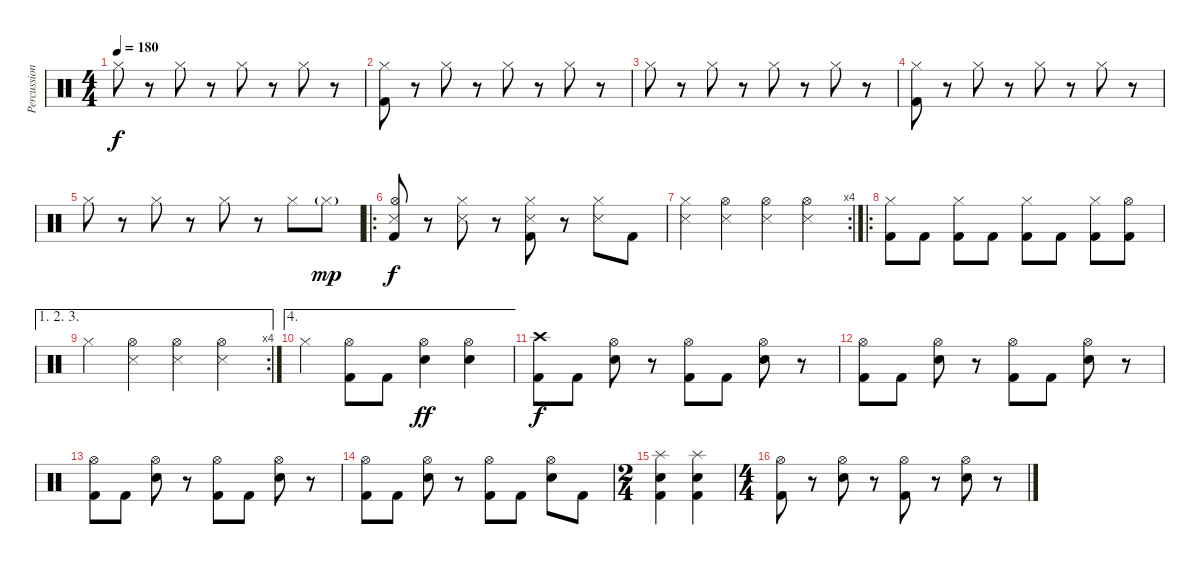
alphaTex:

\track ("Percussion" "Percussion") {instrument percussion}
\staff {score}
\articulation defaults
\ts (4 4)
\tempo 180
\clef neutral
\ks c "Hi-Hat (closed)".8{dy f}
r.8 "Hi-Hat (closed)".8 r.8 "Hi-Hat (closed)".8 r.8 "Hi-Hat (closed)".8 r.8 |
("Hi-Hat (closed)" "Kick (hit) 2").8 r.8 "Hi-Hat (closed)".8 r.8 "Hi-Hat (closed)".8 r.8 "Hi-Hat (closed)".8 r.8 |
"Hi-Hat (closed)".8 r.8 "Hi-Hat (closed)".8 r.8 "Hi-Hat (closed)".8 r.8 "Hi-Hat (closed)".8 r.8 |
("Hi-Hat (closed)" "Kick (hit) 2").8 r.8 "Hi-Hat (closed)".8 r.8 "Hi-Hat (closed)".8 r.8 "Hi-Hat (closed)".8 r.8 |
"Hi-Hat (closed)".8 r.8 "Hi-Hat (closed)".8 r.8 "Hi-Hat (closed)".8 r.8 "Hi-Hat (closed)".8 "Hi-Hat (closed)"{g}.8{dy mp} |
\ro
("Hi-Hat (open)" "Snare (side stick) 3" "Kick (hit) 2").8{dy f} r.8 ("Hi-Hat (closed)" "Snare (side stick) 3").8 r.8 ("Hi-Hat (closed)" "Snare (side stick) 3" "Kick (hit) 2").8 r.8 ("Hi-Hat (closed)" "Snare (side stick) 3").8 "Kick (hit) 2".8 |
\rc 4
("Hi-Hat (closed)" "Snare (side stick) 3").4 ("Hi-Hat (open)" "Snare (side stick) 3").4 ("Hi-Hat (open)" "Snare (side stick) 3").4 ("Hi-Hat (open)" "Snare (side stick) 3").4 |
\ro
("Hi-Hat (closed)" "Kick (hit) 2").8 "Kick (hit) 2".8 ("Hi-Hat (closed)" "Kick (hit) 2").8 "Kick (hit) 2".8 ("Hi-Hat (closed)" "Kick (hit) 2").8 "Kick (hit) 2".8 ("Hi-Hat (closed)" "Kick (hit) 2").8 ("Hi-Hat (open)" "Kick (hit) 2").8 |
\ae (1 2 3)
\rc 4 "Hi-Hat (closed)".4
("Hi-Hat (open)" "Snare (side stick) 3").4 ("Hi-Hat (open)" "Snare (side stick) 3").4 ("Hi-Hat (open)" "Snare (side stick) 3").4 |
\ae 4 "Hi-Hat (closed)".4
("Hi-Hat (open)" "Kick (hit) 2").8 "Kick (hit) 2".8 ("Hi-Hat (open)" "Electric Snare (hit)").4{dy ff} ("Hi-Hat (open)" "Electric Snare (hit)").4 |
("Crash high (hit)" "Kick (hit) 2").8{dy f} "Kick (hit) 2".8 ("Hi-Hat (open)" "Electric Snare (hit)").8 r.8 ("Hi-Hat (open)" "Kick (hit) 2").8 "Kick (hit) 2".8 ("Hi-Hat (open)" "Electric Snare (hit)").8 r.8 |
("Hi-Hat (open)" "Kick (hit) 2").8 "Kick (hit) 2".8 ("Hi-Hat (open)" "Electric Snare (hit)").8 r.8 ("Hi-Hat (open)" "Kick (hit) 2").8 "Kick (hit) 2".8 ("Hi-Hat (open)" "Electric Snare (hit)").8 r.8 |
("Hi-Hat (open)" "Kick (hit) 2").8 "Kick (hit) 2".8 ("Hi-Hat (open)" "Electric Snare (hit)").8 r.8 ("Hi-Hat (open)" "Kick (hit) 2").8 "Kick (hit) 2".8 ("Hi-Hat (open)" "Electric Snare (hit)").8 r.8 |
("Hi-Hat (open)" "Kick (hit) 2").8 "Kick (hit) 2".8 ("Hi-Hat (open)" "Electric Snare (hit)").8 r.8 ("Hi-Hat (open)" "Kick (hit) 2").8 "Kick (hit) 2".8 ("Hi-Hat (open)" "Electric Snare (hit)").8 "Kick (hit) 2".8 |
\ts (2 4)
("Splash (hit)" "Electric Snare (hit)" "Kick (hit) 2").4 ("Splash (hit)" "Electric Snare (hit)" "Kick (hit) 2").4 |
\ts (4 4)
("Hi-Hat (open)" "Kick (hit) 2").8 r.8 ("Hi-Hat (open)" "Electric Snare (hit)").8 r.8 ("Hi-Hat (open)" "Kick (hit) 2").8 r.8 ("Hi-Hat (open)" "Electric Snare (hit)").8 r.8
